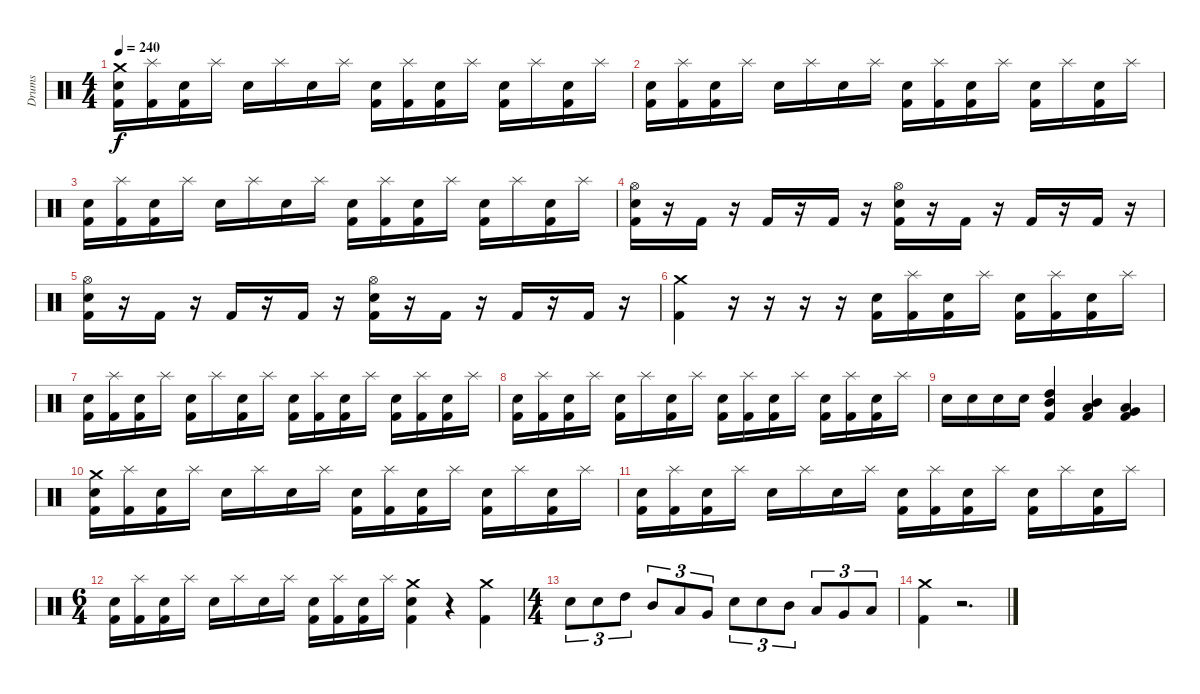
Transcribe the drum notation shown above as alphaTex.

\track ("Drums" "Drums") {instrument percussion}
\staff {score}
\articulation defaults
\ts (4 4)
\tempo 240
\clef neutral
\ks c
("Crash medium (hit)" "Electric Snare (hit)" "Kick (hit) 2").16{dy f} ("Splash (hit)" "Kick (hit) 2").16 ("Electric Snare (hit)" "Kick (hit) 2").16 "Splash (hit)".16 "Electric Snare (hit)".16 "Splash (hit)".16 "Electric Snare (hit)".16 "Splash (hit)".16 ("Electric Snare (hit)" "Kick (hit) 2").16 ("Splash (hit)" "Kick (hit) 2").16 ("Electric Snare (hit)" "Kick (hit) 2").16 "Splash (hit)".16 ("Electric Snare (hit)" "Kick (hit) 2").16 "Splash (hit)".16 ("Electric Snare (hit)" "Kick (hit) 2").16 "Splash (hit)".16 |
("Electric Snare (hit)" "Kick (hit) 2").16 ("Splash (hit)" "Kick (hit) 2").16 ("Electric Snare (hit)" "Kick (hit) 2").16 "Splash (hit)".16 "Electric Snare (hit)".16 "Splash (hit)".16 "Electric Snare (hit)".16 "Splash (hit)".16 ("Electric Snare (hit)" "Kick (hit) 2").16 ("Splash (hit)" "Kick (hit) 2").16 ("Electric Snare (hit)" "Kick (hit) 2").16 "Splash (hit)".16 ("Electric Snare (hit)" "Kick (hit) 2").16 "Splash (hit)".16 ("Electric Snare (hit)" "Kick (hit) 2").16 "Splash (hit)".16 |
("Electric Snare (hit)" "Kick (hit) 2").16 ("Splash (hit)" "Kick (hit) 2").16 ("Electric Snare (hit)" "Kick (hit) 2").16 "Splash (hit)".16 "Electric Snare (hit)".16 "Splash (hit)".16 "Electric Snare (hit)".16 "Splash (hit)".16 ("Electric Snare (hit)" "Kick (hit) 2").16 ("Splash (hit)" "Kick (hit) 2").16 ("Electric Snare (hit)" "Kick (hit) 2").16 "Splash (hit)".16 ("Electric Snare (hit)" "Kick (hit) 2").16 "Splash (hit)".16 ("Electric Snare (hit)" "Kick (hit) 2").16 "Splash (hit)".16 |
("Hi-Hat (open)" "Electric Snare (hit)" "Kick (hit) 2").16 r.16 "Kick (hit) 2".16 r.16 "Kick (hit) 2".16 r.16 "Kick (hit) 2".16 r.16 ("Hi-Hat (open)" "Electric Snare (hit)" "Kick (hit) 2").16 r.16 "Kick (hit) 2".16 r.16 "Kick (hit) 2".16 r.16 "Kick (hit) 2".16 r.16 |
("Hi-Hat (open)" "Electric Snare (hit)" "Kick (hit) 2").16 r.16 "Kick (hit) 2".16 r.16 "Kick (hit) 2".16 r.16 "Kick (hit) 2".16 r.16 ("Hi-Hat (open)" "Electric Snare (hit)" "Kick (hit) 2").16 r.16 "Kick (hit) 2".16 r.16 "Kick (hit) 2".16 r.16 "Kick (hit) 2".16 r.16 |
("Crash medium (hit)" "Kick (hit) 2").4 r.16 r.16 r.16 r.16 ("Electric Snare (hit)" "Kick (hit) 2").16 ("Splash (hit)" "Kick (hit) 2").16 ("Electric Snare (hit)" "Kick (hit) 2").16 "Splash (hit)".16 ("Electric Snare (hit)" "Kick (hit) 2").16 ("Splash (hit)" "Kick (hit) 2").16 ("Electric Snare (hit)" "Kick (hit) 2").16 "Splash (hit)".16 |
("Electric Snare (hit)" "Kick (hit) 2").16 ("Splash (hit)" "Kick (hit) 2").16 ("Electric Snare (hit)" "Kick (hit) 2").16 "Splash (hit)".16 ("Electric Snare (hit)" "Kick (hit) 2").16 "Splash (hit)".16 ("Electric Snare (hit)" "Kick (hit) 2").16 "Splash (hit)".16 ("Electric Snare (hit)" "Kick (hit) 2").16 ("Splash (hit)" "Kick (hit) 2").16 ("Electric Snare (hit)" "Kick (hit) 2").16 "Splash (hit)".16 ("Electric Snare (hit)" "Kick (hit) 2").16 ("Splash (hit)" "Kick (hit) 2").16 ("Electric Snare (hit)" "Kick (hit) 2").16 "Splash (hit)".16 |
("Electric Snare (hit)" "Kick (hit) 2").16 ("Splash (hit)" "Kick (hit) 2").16 ("Electric Snare (hit)" "Kick (hit) 2").16 "Splash (hit)".16 ("Electric Snare (hit)" "Kick (hit) 2").16 "Splash (hit)".16 ("Electric Snare (hit)" "Kick (hit) 2").16 "Splash (hit)".16 ("Electric Snare (hit)" "Kick (hit) 2").16 ("Splash (hit)" "Kick (hit) 2").16 ("Electric Snare (hit)" "Kick (hit) 2").16 "Splash (hit)".16 ("Electric Snare (hit)" "Kick (hit) 2").16 ("Splash (hit)" "Kick (hit) 2").16 ("Electric Snare (hit)" "Kick (hit) 2").16 "Splash (hit)".16 |
"Electric Snare (hit)".16 "Electric Snare (hit)".16 "Electric Snare (hit)".16 "Electric Snare (hit)".16 ("Mid Tom (hit)" "High Tom (hit)" "Kick (hit) 2").4 ("Low Tom (hit)" "Mid Tom (hit)" "Kick (hit) 2").4 ("Very Low Tom (hit)" "Low Tom (hit)" "Kick (hit) 2").4 |
("Crash medium (hit)" "Electric Snare (hit)" "Kick (hit) 2").16 ("Splash (hit)" "Kick (hit) 2").16 ("Electric Snare (hit)" "Kick (hit) 2").16 "Splash (hit)".16 "Electric Snare (hit)".16 "Splash (hit)".16 "Electric Snare (hit)".16 "Splash (hit)".16 ("Electric Snare (hit)" "Kick (hit) 2").16 ("Splash (hit)" "Kick (hit) 2").16 ("Electric Snare (hit)" "Kick (hit) 2").16 "Splash (hit)".16 ("Electric Snare (hit)" "Kick (hit) 2").16 "Splash (hit)".16 ("Electric Snare (hit)" "Kick (hit) 2").16 "Splash (hit)".16 |
("Electric Snare (hit)" "Kick (hit) 2").16 ("Splash (hit)" "Kick (hit) 2").16 ("Electric Snare (hit)" "Kick (hit) 2").16 "Splash (hit)".16 "Electric Snare (hit)".16 "Splash (hit)".16 "Electric Snare (hit)".16 "Splash (hit)".16 ("Electric Snare (hit)" "Kick (hit) 2").16 ("Splash (hit)" "Kick (hit) 2").16 ("Electric Snare (hit)" "Kick (hit) 2").16 "Splash (hit)".16 ("Electric Snare (hit)" "Kick (hit) 2").16 "Splash (hit)".16 ("Electric Snare (hit)" "Kick (hit) 2").16 "Splash (hit)".16 |
\ts (6 4)
("Electric Snare (hit)" "Kick (hit) 2").16 ("Splash (hit)" "Kick (hit) 2").16 ("Electric Snare (hit)" "Kick (hit) 2").16 "Splash (hit)".16 "Electric Snare (hit)".16 "Splash (hit)".16 "Electric Snare (hit)".16 "Splash (hit)".16 ("Electric Snare (hit)" "Kick (hit) 2").16 ("Splash (hit)" "Kick (hit) 2").16 ("Electric Snare (hit)" "Kick (hit) 2").16 "Splash (hit)".16 ("Crash medium (hit)" "Electric Snare (hit)" "Kick (hit) 2").4 r.4 ("Crash medium (hit)" "Kick (hit) 2").4 |
\ts (4 4)
"Electric Snare (hit)".8{tu (3 2)} "Electric Snare (hit)".8{tu (3 2)} "High Tom (hit)".8{tu (3 2)} "Mid Tom (hit)".8{tu (3 2)} "Low Tom (hit)".8{tu (3 2)} "Very Low Tom (hit)".8{tu (3 2)} "Electric Snare (hit)".8{tu (3 2)} "Electric Snare (hit)".8{tu (3 2)} "Mid Tom (hit)".8{tu (3 2)} "Low Tom (hit)".8{tu (3 2)} "Very Low Tom (hit)".8{tu (3 2)} "Low Floor Tom (hit)".8{tu (3 2)} |
("Crash medium (hit)" "Kick (hit) 2").4 r.2{d}
